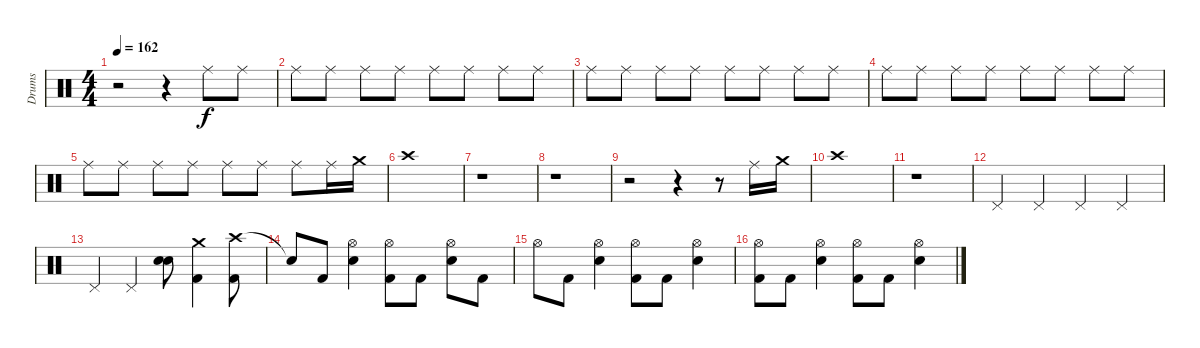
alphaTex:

\track ("Drums" "Drums") {instrument percussion}
\staff {score}
\articulation defaults
\ts (4 4)
\tempo 162
\clef neutral
\ks c
r.2{dy f} r.4 "Ride (middle)".8 "Ride (middle)".8 |
"Ride (middle)".8 "Ride (middle)".8 "Ride (middle)".8 "Ride (middle)".8 "Ride (middle)".8 "Ride (middle)".8 "Ride (middle)".8 "Ride (middle)".8 |
"Ride (middle)".8 "Ride (middle)".8 "Ride (middle)".8 "Ride (middle)".8 "Ride (middle)".8 "Ride (middle)".8 "Ride (middle)".8 "Ride (middle)".8 |
"Ride (middle)".8 "Ride (middle)".8 "Ride (middle)".8 "Ride (middle)".8 "Ride (middle)".8 "Ride (middle)".8 "Ride (middle)".8 "Ride (middle)".8 |
"Ride (middle)".8 "Ride (middle)".8 "Ride (middle)".8 "Ride (middle)".8 "Ride (middle)".8 "Ride (middle)".8 "Ride (middle)".8 "Ride (middle)".16 "Crash medium (hit)".16 |
"Crash high (hit)".1 |
r.1 |
r.1 |
r.2 r.4 r.8 "Ride (middle)".16 "Crash medium (hit)".16 |
"Crash high (hit)".1 |
r.1 |
"Pedal Hi-Hat (hit)".4 "Pedal Hi-Hat (hit)".4 "Pedal Hi-Hat (hit)".4 "Pedal Hi-Hat (hit)".4 |
"Pedal Hi-Hat (hit)".4 "Pedal Hi-Hat (hit)".4 ("Snare (hit) 2" "Snare (hit) 2").8 ("Crash medium (hit)" "Kick (hit) 2").4 ("Crash high (hit)" "Kick (hit) 2").8 |
"Snare (hit)"{t}.8 "Kick (hit) 2".8 ("Hi-Hat (open)" "Snare (hit) 2").4 ("Hi-Hat (open)" "Kick (hit) 2").8 "Kick (hit) 2".8 ("Hi-Hat (open)" "Snare (hit) 2").8 "Kick (hit) 2".8 |
"Hi-Hat (open)".8 "Kick (hit) 2".8 ("Hi-Hat (open)" "Snare (hit) 2").4 ("Hi-Hat (open)" "Kick (hit) 2").8 "Kick (hit) 2".8 ("Hi-Hat (open)" "Snare (hit) 2").4 |
("Hi-Hat (open)" "Kick (hit) 2").8 "Kick (hit) 2".8 ("Hi-Hat (open)" "Snare (hit) 2").4 ("Hi-Hat (open)" "Kick (hit) 2").8 "Kick (hit) 2".8 ("Hi-Hat (open)" "Snare (hit) 2").4
